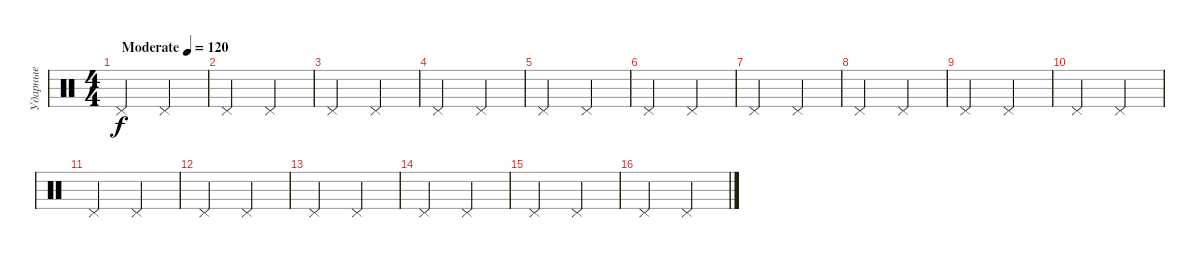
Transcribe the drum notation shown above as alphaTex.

\track ("Ударные" "Ударные") {instrument percussion}
\staff {score}
\articulation defaults
\ts (4 4)
\tempo (120 "Moderate")
\clef neutral
\ks c "Pedal Hi-Hat (hit)".2{dy f} "Pedal Hi-Hat (hit)".2
|
"Pedal Hi-Hat (hit)".2 "Pedal Hi-Hat (hit)".2 |
"Pedal Hi-Hat (hit)".2 "Pedal Hi-Hat (hit)".2 |
"Pedal Hi-Hat (hit)".2 "Pedal Hi-Hat (hit)".2 |
"Pedal Hi-Hat (hit)".2 "Pedal Hi-Hat (hit)".2 |
"Pedal Hi-Hat (hit)".2 "Pedal Hi-Hat (hit)".2 |
"Pedal Hi-Hat (hit)".2 "Pedal Hi-Hat (hit)".2 |
"Pedal Hi-Hat (hit)".2 "Pedal Hi-Hat (hit)".2 |
"Pedal Hi-Hat (hit)".2 "Pedal Hi-Hat (hit)".2 |
"Pedal Hi-Hat (hit)".2 "Pedal Hi-Hat (hit)".2 |
"Pedal Hi-Hat (hit)".2 "Pedal Hi-Hat (hit)".2 |
"Pedal Hi-Hat (hit)".2 "Pedal Hi-Hat (hit)".2 |
"Pedal Hi-Hat (hit)".2 "Pedal Hi-Hat (hit)".2 |
"Pedal Hi-Hat (hit)".2 "Pedal Hi-Hat (hit)".2 |
"Pedal Hi-Hat (hit)".2 "Pedal Hi-Hat (hit)".2 |
"Pedal Hi-Hat (hit)".2 "Pedal Hi-Hat (hit)".2
